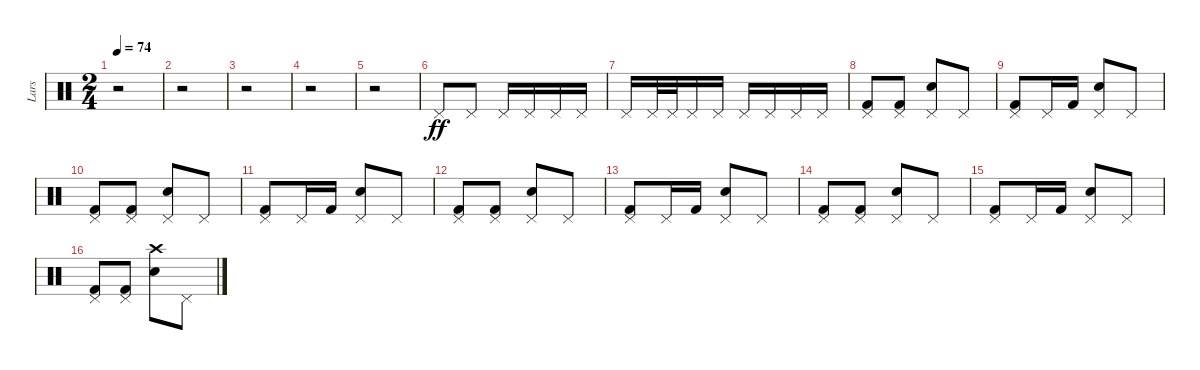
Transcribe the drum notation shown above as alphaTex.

\track ("Lars" "Lars") {instrument percussion}
\staff {score}
\articulation defaults
\ts (2 4)
\tempo 74
\clef neutral
\ks c
r.2{dy fff} |
r.2 |
r.2 |
r.2 |
r.2 |
"Pedal Hi-Hat (hit)".8{dy ff} "Pedal Hi-Hat (hit)".8 "Pedal Hi-Hat (hit)".16 "Pedal Hi-Hat (hit)".16 "Pedal Hi-Hat (hit)".16 "Pedal Hi-Hat (hit)".16 |
"Pedal Hi-Hat (hit)".16 "Pedal Hi-Hat (hit)".32 "Pedal Hi-Hat (hit)".32 "Pedal Hi-Hat (hit)".16 "Pedal Hi-Hat (hit)".16 "Pedal Hi-Hat (hit)".16 "Pedal Hi-Hat (hit)".16 "Pedal Hi-Hat (hit)".16 "Pedal Hi-Hat (hit)".16 |
("Pedal Hi-Hat (hit)" "Kick (hit) 2").8 ("Pedal Hi-Hat (hit)" "Kick (hit) 2").8 ("Pedal Hi-Hat (hit)" "Snare (hit) 2").8 "Pedal Hi-Hat (hit)".8 |
("Pedal Hi-Hat (hit)" "Kick (hit) 2").8 "Pedal Hi-Hat (hit)".16 "Kick (hit) 2".16 ("Pedal Hi-Hat (hit)" "Snare (hit) 2").8 "Pedal Hi-Hat (hit)".8 |
("Pedal Hi-Hat (hit)" "Kick (hit) 2").8 ("Pedal Hi-Hat (hit)" "Kick (hit) 2").8 ("Pedal Hi-Hat (hit)" "Snare (hit) 2").8 "Pedal Hi-Hat (hit)".8 |
("Pedal Hi-Hat (hit)" "Kick (hit) 2").8 "Pedal Hi-Hat (hit)".16 "Kick (hit) 2".16 ("Pedal Hi-Hat (hit)" "Snare (hit) 2").8 "Pedal Hi-Hat (hit)".8 |
("Pedal Hi-Hat (hit)" "Kick (hit) 2").8 ("Pedal Hi-Hat (hit)" "Kick (hit) 2").8 ("Pedal Hi-Hat (hit)" "Snare (hit) 2").8 "Pedal Hi-Hat (hit)".8 |
("Pedal Hi-Hat (hit)" "Kick (hit) 2").8 "Pedal Hi-Hat (hit)".16 "Kick (hit) 2".16 ("Pedal Hi-Hat (hit)" "Snare (hit) 2").8 "Pedal Hi-Hat (hit)".8 |
("Pedal Hi-Hat (hit)" "Kick (hit) 2").8 ("Pedal Hi-Hat (hit)" "Kick (hit) 2").8 ("Pedal Hi-Hat (hit)" "Snare (hit) 2").8 "Pedal Hi-Hat (hit)".8 |
("Pedal Hi-Hat (hit)" "Kick (hit) 2").8 "Pedal Hi-Hat (hit)".16 "Kick (hit) 2".16 ("Pedal Hi-Hat (hit)" "Snare (hit) 2").8 "Pedal Hi-Hat (hit)".8 |
("Pedal Hi-Hat (hit)" "Kick (hit) 2").8 ("Pedal Hi-Hat (hit)" "Kick (hit) 2").8 ("Crash high (hit)" "Snare (hit) 2").8 "Pedal Hi-Hat (hit)".8
